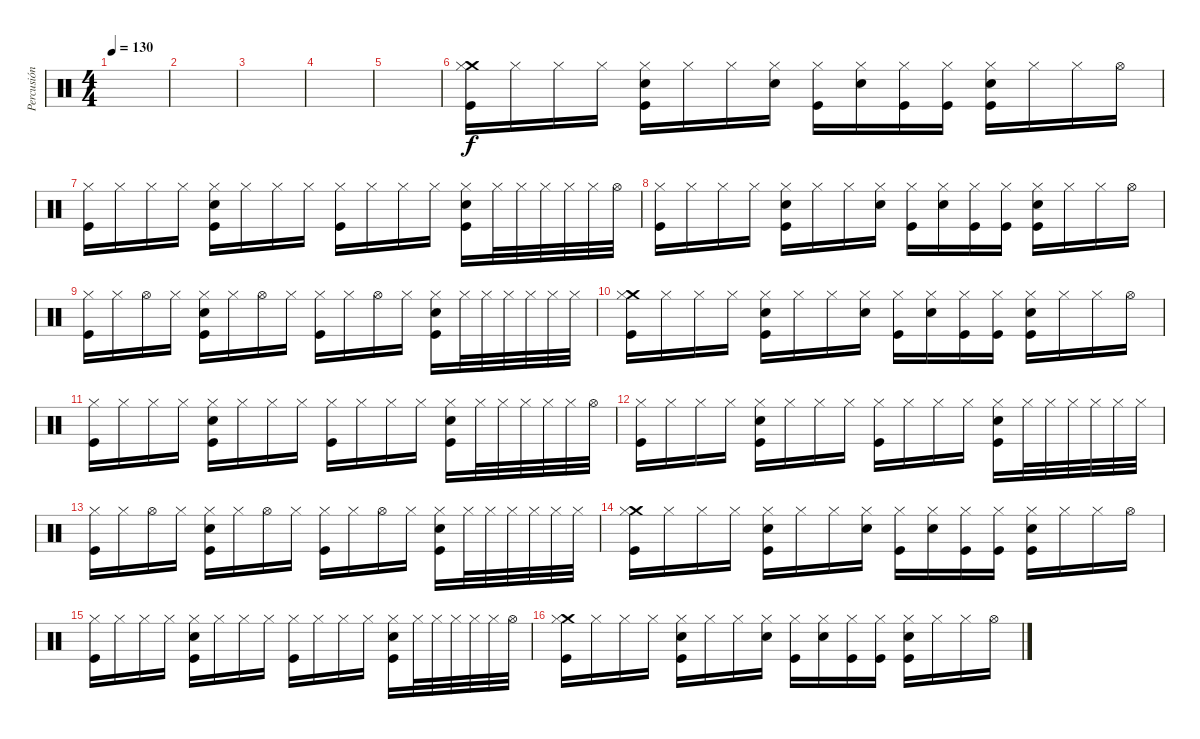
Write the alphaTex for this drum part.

\track ("Percusión" "Percusión") {instrument percussion}
\staff {score}
\articulation defaults
\ts (4 4)
\tempo 130
\clef neutral
\ks c
|
|
|
|
|
("Kick (hit)" "Crash medium (hit)" "Hi-Hat (closed)").16 "Hi-Hat (closed)".16 "Hi-Hat (closed)".16 "Hi-Hat (closed)".16 ("Kick (hit)" "Snare (hit) 2" "Hi-Hat (closed)").16 "Hi-Hat (closed)".16 "Hi-Hat (closed)".16 ("Snare (hit) 2" "Hi-Hat (closed)").16 ("Kick (hit)" "Hi-Hat (closed)").16 ("Snare (hit) 2" "Hi-Hat (closed)").16 ("Kick (hit)" "Hi-Hat (closed)").16 ("Kick (hit)" "Hi-Hat (closed)").16 ("Kick (hit)" "Snare (hit) 2" "Hi-Hat (closed)").16 "Hi-Hat (closed)".16 "Hi-Hat (closed)".16 "Hi-Hat (open)".16 |
("Kick (hit)" "Hi-Hat (closed)").16 "Hi-Hat (closed)".16 "Hi-Hat (closed)".16 "Hi-Hat (closed)".16 ("Kick (hit)" "Snare (hit) 2" "Hi-Hat (closed)").16 "Hi-Hat (closed)".16 "Hi-Hat (closed)".16 "Hi-Hat (closed)".16 ("Kick (hit)" "Hi-Hat (closed)").16 "Hi-Hat (closed)".16 "Hi-Hat (closed)".16 "Hi-Hat (closed)".16 ("Kick (hit)" "Snare (hit) 2" "Hi-Hat (closed)").16 "Hi-Hat (closed)".32 "Hi-Hat (closed)".32 "Hi-Hat (closed)".32 "Hi-Hat (closed)".32 "Hi-Hat (closed)".32 "Hi-Hat (open)".32 |
("Kick (hit)" "Hi-Hat (closed)").16 "Hi-Hat (closed)".16 "Hi-Hat (closed)".16 "Hi-Hat (closed)".16 ("Kick (hit)" "Snare (hit) 2" "Hi-Hat (closed)").16 "Hi-Hat (closed)".16 "Hi-Hat (closed)".16 ("Snare (hit) 2" "Hi-Hat (closed)").16 ("Kick (hit)" "Hi-Hat (closed)").16 ("Snare (hit) 2" "Hi-Hat (closed)").16 ("Kick (hit)" "Hi-Hat (closed)").16 ("Kick (hit)" "Hi-Hat (closed)").16 ("Kick (hit)" "Snare (hit) 2" "Hi-Hat (closed)").16 "Hi-Hat (closed)".16 "Hi-Hat (closed)".16 "Hi-Hat (open)".16 |
("Kick (hit)" "Hi-Hat (closed)").16 "Hi-Hat (closed)".16 "Hi-Hat (open)".16 "Hi-Hat (closed)".16 ("Kick (hit)" "Snare (hit) 2" "Hi-Hat (closed)").16 "Hi-Hat (closed)".16 "Hi-Hat (open)".16 "Hi-Hat (closed)".16 ("Kick (hit)" "Hi-Hat (closed)").16 "Hi-Hat (closed)".16 "Hi-Hat (open)".16 "Hi-Hat (closed)".16 ("Kick (hit)" "Snare (hit) 2" "Hi-Hat (closed)").16 "Hi-Hat (closed)".32 "Hi-Hat (closed)".32 "Hi-Hat (closed)".32 "Hi-Hat (closed)".32 "Hi-Hat (closed)".32 "Hi-Hat (closed)".32 |
("Kick (hit)" "Crash medium (hit)" "Hi-Hat (closed)").16 "Hi-Hat (closed)".16 "Hi-Hat (closed)".16 "Hi-Hat (closed)".16 ("Kick (hit)" "Snare (hit) 2" "Hi-Hat (closed)").16 "Hi-Hat (closed)".16 "Hi-Hat (closed)".16 ("Snare (hit) 2" "Hi-Hat (closed)").16 ("Kick (hit)" "Hi-Hat (closed)").16 ("Snare (hit) 2" "Hi-Hat (closed)").16 ("Kick (hit)" "Hi-Hat (closed)").16 ("Kick (hit)" "Hi-Hat (closed)").16 ("Kick (hit)" "Snare (hit) 2" "Hi-Hat (closed)").16 "Hi-Hat (closed)".16 "Hi-Hat (closed)".16 "Hi-Hat (open)".16 |
("Kick (hit)" "Hi-Hat (closed)").16 "Hi-Hat (closed)".16 "Hi-Hat (closed)".16 "Hi-Hat (closed)".16 ("Kick (hit)" "Snare (hit) 2" "Hi-Hat (closed)").16 "Hi-Hat (closed)".16 "Hi-Hat (closed)".16 "Hi-Hat (closed)".16 ("Kick (hit)" "Hi-Hat (closed)").16 "Hi-Hat (closed)".16 "Hi-Hat (closed)".16 "Hi-Hat (closed)".16 ("Kick (hit)" "Snare (hit) 2" "Hi-Hat (closed)").16 "Hi-Hat (closed)".32 "Hi-Hat (closed)".32 "Hi-Hat (closed)".32 "Hi-Hat (closed)".32 "Hi-Hat (closed)".32 "Hi-Hat (open)".32 |
("Kick (hit)" "Hi-Hat (closed)").16 "Hi-Hat (closed)".16 "Hi-Hat (closed)".16 "Hi-Hat (closed)".16 ("Kick (hit)" "Snare (hit) 2" "Hi-Hat (closed)").16 "Hi-Hat (closed)".16 "Hi-Hat (closed)".16 "Hi-Hat (closed)".16 ("Kick (hit)" "Hi-Hat (closed)").16 "Hi-Hat (closed)".16 "Hi-Hat (closed)".16 "Hi-Hat (closed)".16 ("Kick (hit)" "Snare (hit) 2" "Hi-Hat (closed)").16 "Hi-Hat (closed)".32 "Hi-Hat (closed)".32 "Hi-Hat (closed)".32 "Hi-Hat (closed)".32 "Hi-Hat (closed)".32 "Hi-Hat (closed)".32 |
("Kick (hit)" "Hi-Hat (closed)").16 "Hi-Hat (closed)".16 "Hi-Hat (open)".16 "Hi-Hat (closed)".16 ("Kick (hit)" "Snare (hit) 2" "Hi-Hat (closed)").16 "Hi-Hat (closed)".16 "Hi-Hat (open)".16 "Hi-Hat (closed)".16 ("Kick (hit)" "Hi-Hat (closed)").16 "Hi-Hat (closed)".16 "Hi-Hat (open)".16 "Hi-Hat (closed)".16 ("Kick (hit)" "Snare (hit) 2" "Hi-Hat (closed)").16 "Hi-Hat (closed)".32 "Hi-Hat (closed)".32 "Hi-Hat (closed)".32 "Hi-Hat (closed)".32 "Hi-Hat (closed)".32 "Hi-Hat (closed)".32 |
("Kick (hit)" "Crash medium (hit)" "Hi-Hat (closed)").16 "Hi-Hat (closed)".16 "Hi-Hat (closed)".16 "Hi-Hat (closed)".16 ("Kick (hit)" "Snare (hit) 2" "Hi-Hat (closed)").16 "Hi-Hat (closed)".16 "Hi-Hat (closed)".16 ("Snare (hit) 2" "Hi-Hat (closed)").16 ("Kick (hit)" "Hi-Hat (closed)").16 ("Snare (hit) 2" "Hi-Hat (closed)").16 ("Kick (hit)" "Hi-Hat (closed)").16 ("Kick (hit)" "Hi-Hat (closed)").16 ("Kick (hit)" "Snare (hit) 2" "Hi-Hat (closed)").16 "Hi-Hat (closed)".16 "Hi-Hat (closed)".16 "Hi-Hat (open)".16 |
("Kick (hit)" "Hi-Hat (closed)").16 "Hi-Hat (closed)".16 "Hi-Hat (closed)".16 "Hi-Hat (closed)".16 ("Kick (hit)" "Snare (hit) 2" "Hi-Hat (closed)").16 "Hi-Hat (closed)".16 "Hi-Hat (closed)".16 "Hi-Hat (closed)".16 ("Kick (hit)" "Hi-Hat (closed)").16 "Hi-Hat (closed)".16 "Hi-Hat (closed)".16 "Hi-Hat (closed)".16 ("Kick (hit)" "Snare (hit) 2" "Hi-Hat (closed)").16 "Hi-Hat (closed)".32 "Hi-Hat (closed)".32 "Hi-Hat (closed)".32 "Hi-Hat (closed)".32 "Hi-Hat (closed)".32 "Hi-Hat (open)".32 |
("Kick (hit)" "Crash medium (hit)" "Hi-Hat (closed)").16 "Hi-Hat (closed)".16 "Hi-Hat (closed)".16 "Hi-Hat (closed)".16 ("Kick (hit)" "Snare (hit) 2" "Hi-Hat (closed)").16 "Hi-Hat (closed)".16 "Hi-Hat (closed)".16 ("Snare (hit) 2" "Hi-Hat (closed)").16 ("Kick (hit)" "Hi-Hat (closed)").16 ("Snare (hit) 2" "Hi-Hat (closed)").16 ("Kick (hit)" "Hi-Hat (closed)").16 ("Kick (hit)" "Hi-Hat (closed)").16 ("Kick (hit)" "Snare (hit) 2" "Hi-Hat (closed)").16 "Hi-Hat (closed)".16 "Hi-Hat (closed)".16 "Hi-Hat (open)".16
